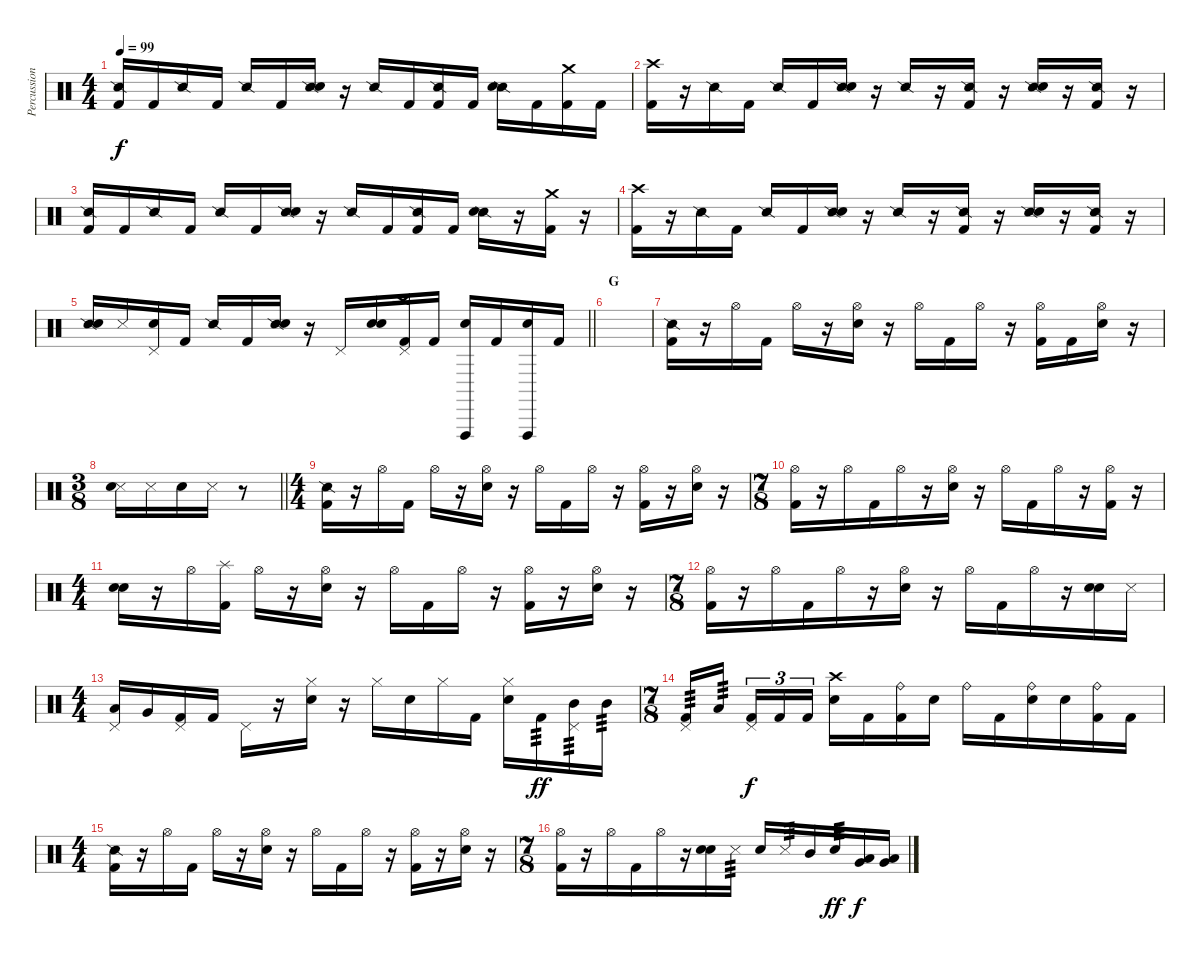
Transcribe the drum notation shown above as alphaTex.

\track ("Percussion" "Percussion") {instrument percussion}
\staff {score}
\articulation defaults
\ts (4 4)
\tempo 99
\clef neutral
\ks c
("Snare (side stick) 2" "Kick (hit) 2").16{dy f} "Kick (hit) 2".16 "Snare (side stick) 2".16 "Kick (hit) 2".16 "Snare (side stick) 2".16 "Kick (hit) 2".16 ("Snare (side stick) 2" "Snare (hit) 2").16 r.16 "Snare (side stick) 2".16 "Kick (hit) 2".16 ("Snare (side stick) 2" "Kick (hit) 2").16 "Kick (hit) 2".16 ("Snare (side stick) 2" "Snare (hit) 2").16 "Kick (hit) 2".16 ("Crash medium (hit)" "Kick (hit) 2").16 "Kick (hit) 2".16 |
("Crash high (hit)" "Kick (hit) 2").16 r.16 "Snare (side stick) 2".16 "Kick (hit) 2".16 "Snare (side stick) 2".16 "Kick (hit) 2".16 ("Snare (side stick) 2" "Snare (hit) 2").16 r.16 "Snare (side stick) 2".16 r.16 ("Snare (side stick) 2" "Kick (hit) 2").16 r.16 ("Snare (side stick) 2" "Snare (hit) 2").16 r.16 ("Snare (side stick) 2" "Kick (hit) 2").16 r.16 |
("Snare (side stick) 2" "Kick (hit) 2").16 "Kick (hit) 2".16 "Snare (side stick) 2".16 "Kick (hit) 2".16 "Snare (side stick) 2".16 "Kick (hit) 2".16 ("Snare (side stick) 2" "Snare (hit) 2").16 r.16 "Snare (side stick) 2".16 "Kick (hit) 2".16 ("Snare (side stick) 2" "Kick (hit) 2").16 "Kick (hit) 2".16 ("Snare (side stick) 2" "Snare (hit) 2").16 r.16 ("Crash medium (hit)" "Kick (hit) 2").16 r.16 |
("Crash high (hit)" "Kick (hit) 2").16 r.16 "Snare (side stick) 2".16 "Kick (hit) 2".16 "Snare (side stick) 2".16 "Kick (hit) 2".16 ("Snare (side stick) 2" "Snare (hit) 2").16 r.16 "Snare (side stick) 2".16 r.16 ("Snare (side stick) 2" "Kick (hit) 2").16 r.16 ("Snare (side stick) 2" "Snare (hit) 2").16 r.16 ("Snare (side stick) 2" "Kick (hit) 2").16 r.16 |
\barLineRight lightlight
("Snare (side stick) 2" "Snare (hit) 2").16 "Metronome (hit)".16 ("Pedal Hi-Hat (hit)" "Snare (hit) 2").16 "Kick (hit) 2".16 "Snare (side stick) 2".16 "Kick (hit) 2".16 ("Snare (side stick) 2" "Snare (hit) 2").16 r.16 "Pedal Hi-Hat (hit)".16 ("Snare (hit)" "Snare (hit) 2").16 ("Crash high (hit)" "Pedal Hi-Hat (hit)" "Kick (hit) 2").16 "Kick (hit) 2".16 ("Vibraslap (hit)" "Snare (hit) 2").16 "Kick (hit) 2".16 ("Vibraslap (hit)" "Snare (hit) 2").16 "Kick (hit) 2".16 |
\section ("" "G")
|
("Snare (side stick) 2" "Kick (hit) 2").16 r.16 "Hi-Hat (open)".16 "Kick (hit) 2".16 "Hi-Hat (open)".16 r.16 ("Hi-Hat (open)" "Snare (hit) 2").16 r.16 "Hi-Hat (open)".16 "Kick (hit) 2".16 "Hi-Hat (open)".16 r.16 ("Hi-Hat (open)" "Kick (hit) 2").16 "Kick (hit) 2".16 ("Hi-Hat (open)" "Snare (hit) 2").16 r.16 |
\ts (3 8)
\barLineRight lightlight
("Metronome (hit)" "Snare (hit) 2").16{bu 120} "Metronome (hit)".16 "Snare (hit) 2".16 "Metronome (hit)".16 r.8 |
\ts (4 4)
("Snare (side stick) 2" "Kick (hit) 2").16 r.16 "Hi-Hat (open)".16 "Kick (hit) 2".16 "Hi-Hat (open)".16 r.16 ("Hi-Hat (open)" "Snare (hit) 2").16 r.16 "Hi-Hat (open)".16 "Kick (hit) 2".16 "Hi-Hat (open)".16 r.16 ("Hi-Hat (open)" "Kick (hit) 2").16 r.16 ("Hi-Hat (open)" "Snare (hit) 2").16 r.16 |
\ts (7 8)
("Hi-Hat (open)" "Kick (hit) 2").16 r.16 "Hi-Hat (open)".16 "Kick (hit) 2".16 "Hi-Hat (open)".16 r.16 ("Hi-Hat (open)" "Snare (hit) 2").16 r.16 "Hi-Hat (open)".16 "Kick (hit) 2".16 "Hi-Hat (open)".16 r.16 ("Hi-Hat (open)" "Kick (hit) 2").16 r.16 |
\ts (4 4)
("Snare (hit)" "Snare (hit) 2").16 r.16 "Hi-Hat (open)".16 ("Splash (hit)" "Kick (hit) 2").16 "Hi-Hat (open)".16 r.16 ("Hi-Hat (open)" "Snare (hit) 2").16 r.16 "Hi-Hat (open)".16 "Kick (hit) 2".16 "Hi-Hat (open)".16 r.16 ("Hi-Hat (open)" "Kick (hit) 2").16 r.16 ("Hi-Hat (open)" "Snare (hit) 2").16 r.16 |
\ts (7 8)
("Hi-Hat (open)" "Kick (hit) 2").16 r.16 "Hi-Hat (open)".16 "Kick (hit) 2".16 "Hi-Hat (open)".16 r.16 ("Hi-Hat (open)" "Snare (hit) 2").16 r.16 "Hi-Hat (open)".16 "Kick (hit) 2".16 "Hi-Hat (open)".16 r.16 ("Snare (hit)" "Snare (hit) 2").16 "Metronome (hit)".16 |
\ts (4 4)
("Pedal Hi-Hat (hit)" "Low Tom (hit)").16 "Very Low Tom (hit)".16 ("Pedal Hi-Hat (hit)" "Kick (hit) 2").16 "Kick (hit) 2".16 "Pedal Hi-Hat (hit)".16 r.16 ("Hi-Hat (closed)" "Snare (hit) 2").16 r.16 "Hi-Hat (closed)".16 "Snare (hit) 2".16 "Hi-Hat (closed)".16 "Kick (hit) 2".16 ("Hi-Hat (closed)" "Snare (hit) 2").16 "Kick (hit) 2".16{tp 3 dy ff} ("Pedal Hi-Hat (hit)" "Mid Tom (hit)").16{tp 3} "Mid Tom (hit)".16{tp 3} |
\ts (7 8)
("Pedal Hi-Hat (hit)" "Kick (hit) 2").16{tp 3} "Low Tom (hit)".16{tp 3} ("Pedal Hi-Hat (hit)" "Kick (hit) 2").16{tu (3 2) dy f} "Kick (hit) 2".16{tu (3 2)} "Kick (hit) 2".16{tu (3 2)} ("Crash high (hit)" "Snare (hit) 2").16 "Kick (hit) 2".16 ("Ride (bell)" "Kick (hit) 2").16 "Snare (hit) 2".16 "Ride (bell)".16 "Kick (hit) 2".16 ("Ride (bell)" "Snare (hit) 2").16 "Snare (hit) 2".16 ("Ride (bell)" "Kick (hit) 2").16 "Kick (hit) 2".16 |
\ts (4 4)
("Snare (side stick) 2" "Kick (hit) 2").16 r.16 "Hi-Hat (open)".16 "Kick (hit) 2".16 "Hi-Hat (open)".16 r.16 ("Hi-Hat (open)" "Snare (hit) 2").16 r.16 "Hi-Hat (open)".16 "Kick (hit) 2".16 "Hi-Hat (open)".16 r.16 ("Hi-Hat (open)" "Kick (hit) 2").16 r.16 ("Hi-Hat (open)" "Snare (hit) 2").16 r.16 |
\ts (7 8)
("Hi-Hat (open)" "Kick (hit) 2").16 r.16 "Hi-Hat (open)".16 "Kick (hit) 2".16 "Hi-Hat (open)".16 r.16 ("Snare (hit)" "Snare (hit) 2").16 "Metronome (hit)".16{tp 3} "Snare (hit) 2".16 "Metronome (hit)".16{tp 3} "Mid Tom (hit)".16 "Snare (hit) 2".16{tp 3 dy ff} ("Low Tom (hit)" "Very Low Tom (hit)").16{bu 120 dy f} ("Low Tom (hit)" "Very Low Tom (hit)").16{bu 120}
